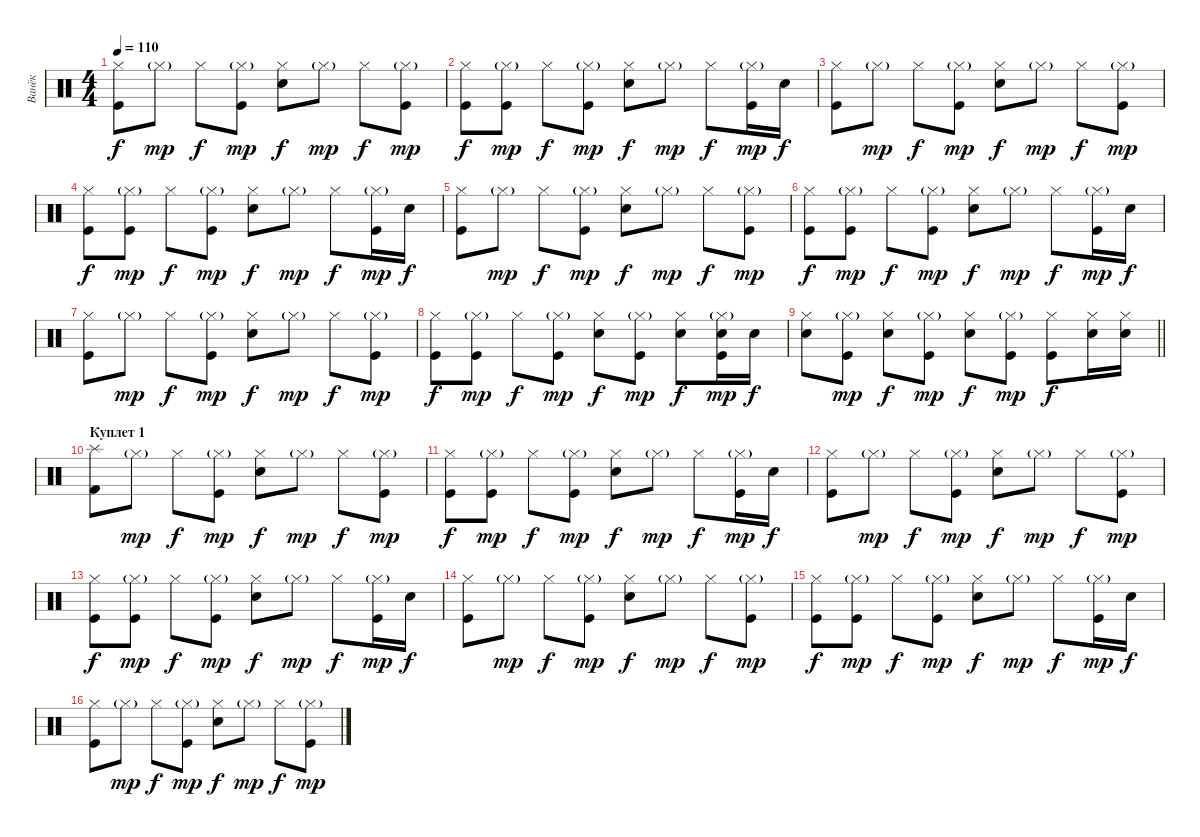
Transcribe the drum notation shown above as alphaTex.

\track ("Ванёк" "Ванёк") {instrument percussion}
\staff {score}
\articulation defaults
\ts (4 4)
\tempo 110
\clef neutral
\ks c
("Kick (hit)" "Hi-Hat (closed)").8{dy f} "Hi-Hat (closed)"{g}.8{dy mp} "Hi-Hat (closed)".8{dy f} ("Kick (hit)" "Hi-Hat (closed)"{g}).8{dy mp} ("Hi-Hat (closed)" "Electric Snare (hit)").8{dy f} "Hi-Hat (closed)"{g}.8{dy mp} "Hi-Hat (closed)".8{dy f} ("Kick (hit)" "Hi-Hat (closed)"{g}).8{dy mp} |
("Kick (hit)" "Hi-Hat (closed)").8{dy f} ("Kick (hit)" "Hi-Hat (closed)"{g}).8{dy mp} "Hi-Hat (closed)".8{dy f} ("Kick (hit)" "Hi-Hat (closed)"{g}).8{dy mp} ("Hi-Hat (closed)" "Electric Snare (hit)").8{dy f} "Hi-Hat (closed)"{g}.8{dy mp} "Hi-Hat (closed)".8{dy f} ("Kick (hit)" "Hi-Hat (closed)"{g}).16{dy mp} "Electric Snare (hit)".16{dy f} |
("Kick (hit)" "Hi-Hat (closed)").8 "Hi-Hat (closed)"{g}.8{dy mp} "Hi-Hat (closed)".8{dy f} ("Kick (hit)" "Hi-Hat (closed)"{g}).8{dy mp} ("Hi-Hat (closed)" "Electric Snare (hit)").8{dy f} "Hi-Hat (closed)"{g}.8{dy mp} "Hi-Hat (closed)".8{dy f} ("Kick (hit)" "Hi-Hat (closed)"{g}).8{dy mp} |
("Kick (hit)" "Hi-Hat (closed)").8{dy f} ("Kick (hit)" "Hi-Hat (closed)"{g}).8{dy mp} "Hi-Hat (closed)".8{dy f} ("Kick (hit)" "Hi-Hat (closed)"{g}).8{dy mp} ("Hi-Hat (closed)" "Electric Snare (hit)").8{dy f} "Hi-Hat (closed)"{g}.8{dy mp} "Hi-Hat (closed)".8{dy f} ("Kick (hit)" "Hi-Hat (closed)"{g}).16{dy mp} "Electric Snare (hit)".16{dy f} |
("Kick (hit)" "Hi-Hat (closed)").8 "Hi-Hat (closed)"{g}.8{dy mp} "Hi-Hat (closed)".8{dy f} ("Kick (hit)" "Hi-Hat (closed)"{g}).8{dy mp} ("Hi-Hat (closed)" "Electric Snare (hit)").8{dy f} "Hi-Hat (closed)"{g}.8{dy mp} "Hi-Hat (closed)".8{dy f} ("Kick (hit)" "Hi-Hat (closed)"{g}).8{dy mp} |
("Kick (hit)" "Hi-Hat (closed)").8{dy f} ("Kick (hit)" "Hi-Hat (closed)"{g}).8{dy mp} "Hi-Hat (closed)".8{dy f} ("Kick (hit)" "Hi-Hat (closed)"{g}).8{dy mp} ("Hi-Hat (closed)" "Electric Snare (hit)").8{dy f} "Hi-Hat (closed)"{g}.8{dy mp} "Hi-Hat (closed)".8{dy f} ("Kick (hit)" "Hi-Hat (closed)"{g}).16{dy mp} "Electric Snare (hit)".16{dy f} |
("Kick (hit)" "Hi-Hat (closed)").8 "Hi-Hat (closed)"{g}.8{dy mp} "Hi-Hat (closed)".8{dy f} ("Kick (hit)" "Hi-Hat (closed)"{g}).8{dy mp} ("Hi-Hat (closed)" "Electric Snare (hit)").8{dy f} "Hi-Hat (closed)"{g}.8{dy mp} "Hi-Hat (closed)".8{dy f} ("Kick (hit)" "Hi-Hat (closed)"{g}).8{dy mp} |
("Kick (hit)" "Hi-Hat (closed)").8{dy f} ("Kick (hit)" "Hi-Hat (closed)"{g}).8{dy mp} "Hi-Hat (closed)".8{dy f} ("Kick (hit)" "Hi-Hat (closed)"{g}).8{dy mp} ("Hi-Hat (closed)" "Electric Snare (hit)").8{dy f} ("Kick (hit)" "Hi-Hat (closed)"{g}).8{dy mp} ("Hi-Hat (closed)" "Electric Snare (hit)").8{dy f} ("Kick (hit)" "Hi-Hat (closed)"{g} "Electric Snare (hit)").16{dy mp} "Electric Snare (hit)".16{dy f} |
\barLineRight lightlight
("Hi-Hat (closed)" "Electric Snare (hit)").8 ("Kick (hit)" "Hi-Hat (closed)"{g}).8{dy mp} ("Hi-Hat (closed)" "Electric Snare (hit)").8{dy f} ("Kick (hit)" "Hi-Hat (closed)"{g}).8{dy mp} ("Hi-Hat (closed)" "Electric Snare (hit)").8{dy f} ("Kick (hit)" "Hi-Hat (closed)"{g}).8{dy mp} ("Kick (hit)" "Hi-Hat (closed)").8{dy f} ("Hi-Hat (closed)" "Electric Snare (hit)").16 ("Hi-Hat (closed)" "Electric Snare (hit)").16 |
\section ("" "Куплет 1")
("Splash (hit)" "Kick (hit) 2").8 "Hi-Hat (closed)"{g}.8{dy mp} "Hi-Hat (closed)".8{dy f} ("Kick (hit)" "Hi-Hat (closed)"{g}).8{dy mp} ("Hi-Hat (closed)" "Electric Snare (hit)").8{dy f} "Hi-Hat (closed)"{g}.8{dy mp} "Hi-Hat (closed)".8{dy f} ("Kick (hit)" "Hi-Hat (closed)"{g}).8{dy mp} |
("Kick (hit)" "Hi-Hat (closed)").8{dy f} ("Kick (hit)" "Hi-Hat (closed)"{g}).8{dy mp} "Hi-Hat (closed)".8{dy f} ("Kick (hit)" "Hi-Hat (closed)"{g}).8{dy mp} ("Hi-Hat (closed)" "Electric Snare (hit)").8{dy f} "Hi-Hat (closed)"{g}.8{dy mp} "Hi-Hat (closed)".8{dy f} ("Kick (hit)" "Hi-Hat (closed)"{g}).16{dy mp} "Electric Snare (hit)".16{dy f} |
("Kick (hit)" "Hi-Hat (closed)").8 "Hi-Hat (closed)"{g}.8{dy mp} "Hi-Hat (closed)".8{dy f} ("Kick (hit)" "Hi-Hat (closed)"{g}).8{dy mp} ("Hi-Hat (closed)" "Electric Snare (hit)").8{dy f} "Hi-Hat (closed)"{g}.8{dy mp} "Hi-Hat (closed)".8{dy f} ("Kick (hit)" "Hi-Hat (closed)"{g}).8{dy mp} |
("Kick (hit)" "Hi-Hat (closed)").8{dy f} ("Kick (hit)" "Hi-Hat (closed)"{g}).8{dy mp} "Hi-Hat (closed)".8{dy f} ("Kick (hit)" "Hi-Hat (closed)"{g}).8{dy mp} ("Hi-Hat (closed)" "Electric Snare (hit)").8{dy f} "Hi-Hat (closed)"{g}.8{dy mp} "Hi-Hat (closed)".8{dy f} ("Kick (hit)" "Hi-Hat (closed)"{g}).16{dy mp} "Electric Snare (hit)".16{dy f} |
("Kick (hit)" "Hi-Hat (closed)").8 "Hi-Hat (closed)"{g}.8{dy mp} "Hi-Hat (closed)".8{dy f} ("Kick (hit)" "Hi-Hat (closed)"{g}).8{dy mp} ("Hi-Hat (closed)" "Electric Snare (hit)").8{dy f} "Hi-Hat (closed)"{g}.8{dy mp} "Hi-Hat (closed)".8{dy f} ("Kick (hit)" "Hi-Hat (closed)"{g}).8{dy mp} |
("Kick (hit)" "Hi-Hat (closed)").8{dy f} ("Kick (hit)" "Hi-Hat (closed)"{g}).8{dy mp} "Hi-Hat (closed)".8{dy f} ("Kick (hit)" "Hi-Hat (closed)"{g}).8{dy mp} ("Hi-Hat (closed)" "Electric Snare (hit)").8{dy f} "Hi-Hat (closed)"{g}.8{dy mp} "Hi-Hat (closed)".8{dy f} ("Kick (hit)" "Hi-Hat (closed)"{g}).16{dy mp} "Electric Snare (hit)".16{dy f} |
("Kick (hit)" "Hi-Hat (closed)").8 "Hi-Hat (closed)"{g}.8{dy mp} "Hi-Hat (closed)".8{dy f} ("Kick (hit)" "Hi-Hat (closed)"{g}).8{dy mp} ("Hi-Hat (closed)" "Electric Snare (hit)").8{dy f} "Hi-Hat (closed)"{g}.8{dy mp} "Hi-Hat (closed)".8{dy f} ("Kick (hit)" "Hi-Hat (closed)"{g}).8{dy mp}
